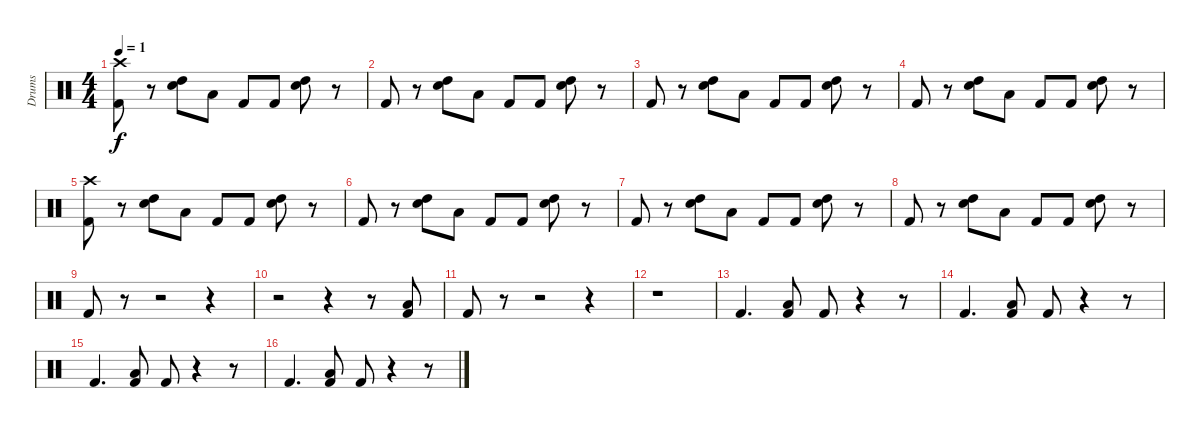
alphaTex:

\track ("Drums" "Drums") {instrument percussion}
\staff {score}
\articulation defaults
\ts (4 4)
\tempo 1
\clef neutral
\ks c
("Crash high (hit)" "Kick (hit) 2").8{dy f} r.8 ("Snare (hit) 2" "High Tom (hit)").8 "Low Tom (hit)".8 "Kick (hit) 2".8 "Kick (hit) 2".8 ("Snare (hit) 2" "High Tom (hit)").8 r.8 |
"Kick (hit) 2".8 r.8 ("Snare (hit) 2" "High Tom (hit)").8 "Low Tom (hit)".8 "Kick (hit) 2".8 "Kick (hit) 2".8 ("Snare (hit) 2" "High Tom (hit)").8 r.8 |
"Kick (hit) 2".8 r.8 ("Snare (hit) 2" "High Tom (hit)").8 "Low Tom (hit)".8 "Kick (hit) 2".8 "Kick (hit) 2".8 ("Snare (hit) 2" "High Tom (hit)").8 r.8 |
"Kick (hit) 2".8 r.8 ("Snare (hit) 2" "High Tom (hit)").8 "Low Tom (hit)".8 "Kick (hit) 2".8 "Kick (hit) 2".8 ("Snare (hit) 2" "High Tom (hit)").8 r.8 |
("Crash high (hit)" "Kick (hit) 2").8 r.8 ("Snare (hit) 2" "High Tom (hit)").8 "Low Tom (hit)".8 "Kick (hit) 2".8 "Kick (hit) 2".8 ("Snare (hit) 2" "High Tom (hit)").8 r.8 |
"Kick (hit) 2".8 r.8 ("Snare (hit) 2" "High Tom (hit)").8 "Low Tom (hit)".8 "Kick (hit) 2".8 "Kick (hit) 2".8 ("Snare (hit) 2" "High Tom (hit)").8 r.8 |
"Kick (hit) 2".8 r.8 ("Snare (hit) 2" "High Tom (hit)").8 "Low Tom (hit)".8 "Kick (hit) 2".8 "Kick (hit) 2".8 ("Snare (hit) 2" "High Tom (hit)").8 r.8 |
"Kick (hit) 2".8 r.8 ("Snare (hit) 2" "High Tom (hit)").8 "Low Tom (hit)".8 "Kick (hit) 2".8 "Kick (hit) 2".8 ("Snare (hit) 2" "High Tom (hit)").8 r.8 |
"Kick (hit) 2".8 r.8 r.2 r.4 |
r.2 r.4 r.8 ("Low Tom (hit)" "Kick (hit) 2").8 |
"Kick (hit) 2".8 r.8 r.2 r.4 |
r.1 |
"Kick (hit) 2".4{d} ("Low Tom (hit)" "Kick (hit) 2").8 "Kick (hit) 2".8 r.4 r.8 |
"Kick (hit) 2".4{d} ("Low Tom (hit)" "Kick (hit) 2").8 "Kick (hit) 2".8 r.4 r.8 |
"Kick (hit) 2".4{d} ("Low Tom (hit)" "Kick (hit) 2").8 "Kick (hit) 2".8 r.4 r.8 |
"Kick (hit) 2".4{d} ("Low Tom (hit)" "Kick (hit) 2").8 "Kick (hit) 2".8 r.4 r.8
